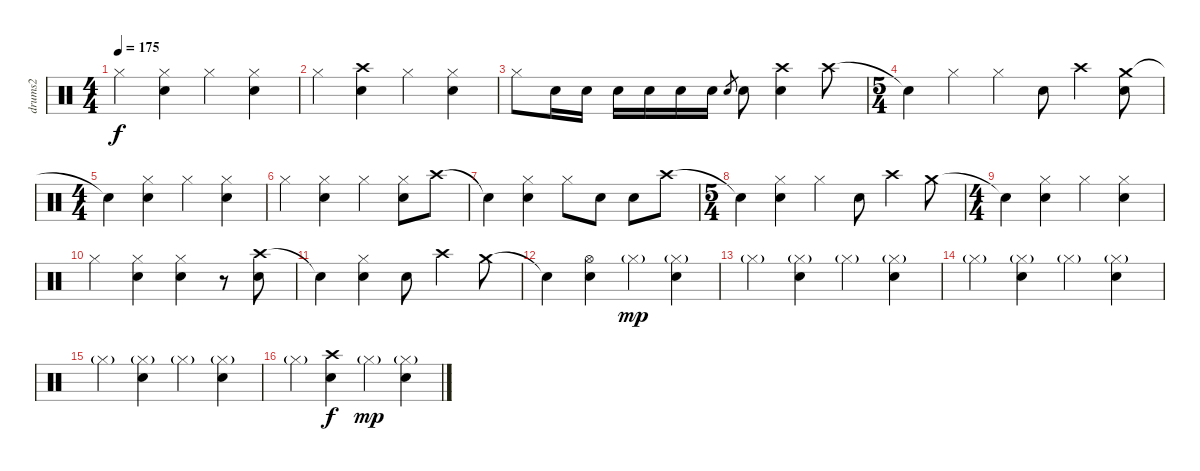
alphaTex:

\track ("drums2" "drums2") {instrument percussion}
\staff {score}
\articulation defaults
\ts (4 4)
\tempo 175
\clef neutral
\ks c "Hi-Hat (closed)".4{dy f}
("Hi-Hat (closed)" "Snare (hit) 2").4 "Hi-Hat (closed)".4 ("Hi-Hat (closed)" "Snare (hit) 2").4 |
"Hi-Hat (closed)".4 ("Crash high (hit)" "Snare (hit) 2").4 "Hi-Hat (closed)".4 ("Hi-Hat (closed)" "Snare (hit) 2").4 |
"Hi-Hat (closed)".8 "Snare (hit) 2".16 "Snare (hit) 2".16 "Snare (hit) 2".16 "Snare (hit) 2".16 "Snare (hit) 2".16 "Snare (hit) 2".16 "Snare (hit) 2".8{gr} "Snare (hit) 2".8 ("Crash high (hit)" "Snare (hit) 2").4 "Crash high (hit)".8 |
\ts (5 4)
"Snare (hit)"{t}.4 "Hi-Hat (closed)".4 "Hi-Hat (closed)".4 "Snare (hit) 2".8 "Crash high (hit)".4 ("Crash medium (hit)" "Snare (hit) 2").8 |
\ts (4 4)
"Snare (hit)"{t}.4 ("Hi-Hat (closed)" "Snare (hit) 2").4 "Hi-Hat (closed)".4 ("Hi-Hat (closed)" "Snare (hit) 2").4 |
"Hi-Hat (closed)".4 ("Hi-Hat (closed)" "Snare (hit) 2").4 "Hi-Hat (closed)".4 ("Hi-Hat (closed)" "Snare (hit) 2").8 "Crash high (hit)".8 |
"Snare (hit)"{t}.4 ("Hi-Hat (closed)" "Snare (hit) 2").4 "Hi-Hat (closed)".8 "Snare (hit) 2".8 "Snare (hit) 2".8 "Crash high (hit)".8 |
\ts (5 4)
"Snare (hit)"{t}.4 ("Hi-Hat (closed)" "Snare (hit) 2").4 "Hi-Hat (closed)".4 "Snare (hit) 2".8 "Crash high (hit)".4 "Crash medium (hit)".8 |
\ts (4 4)
"Snare (hit)"{t}.4 ("Hi-Hat (closed)" "Snare (hit) 2").4 "Hi-Hat (closed)".4 ("Hi-Hat (closed)" "Snare (hit) 2").4 |
"Hi-Hat (closed)".4 ("Hi-Hat (closed)" "Snare (hit) 2").4 ("Hi-Hat (closed)" "Snare (hit) 2").4 r.8 ("Crash high (hit)" "Snare (hit) 2").8 |
"Snare (hit)"{t}.4 ("Hi-Hat (closed)" "Snare (hit) 2").4 "Snare (hit) 2".8 "Crash high (hit)".4 "Crash medium (hit)".8 |
"Snare (hit)"{t}.4 ("Hi-Hat (open)" "Snare (hit) 2").4 "Hi-Hat (closed)"{g}.4{dy mp} ("Hi-Hat (closed)"{g} "Snare (hit) 2").4 |
"Hi-Hat (closed)"{g}.4 ("Hi-Hat (closed)"{g} "Snare (hit) 2").4 "Hi-Hat (closed)"{g}.4 ("Hi-Hat (closed)"{g} "Snare (hit) 2").4 |
"Hi-Hat (closed)"{g}.4 ("Hi-Hat (closed)"{g} "Snare (hit) 2").4 "Hi-Hat (closed)"{g}.4 ("Hi-Hat (closed)"{g} "Snare (hit) 2").4 |
"Hi-Hat (closed)"{g}.4 ("Hi-Hat (closed)"{g} "Snare (hit) 2").4 "Hi-Hat (closed)"{g}.4 ("Hi-Hat (closed)"{g} "Snare (hit) 2").4 |
"Hi-Hat (closed)"{g}.4 ("Crash high (hit)" "Snare (hit) 2").4{dy f} "Hi-Hat (closed)"{g}.4{dy mp} ("Hi-Hat (closed)"{g} "Snare (hit) 2").4
